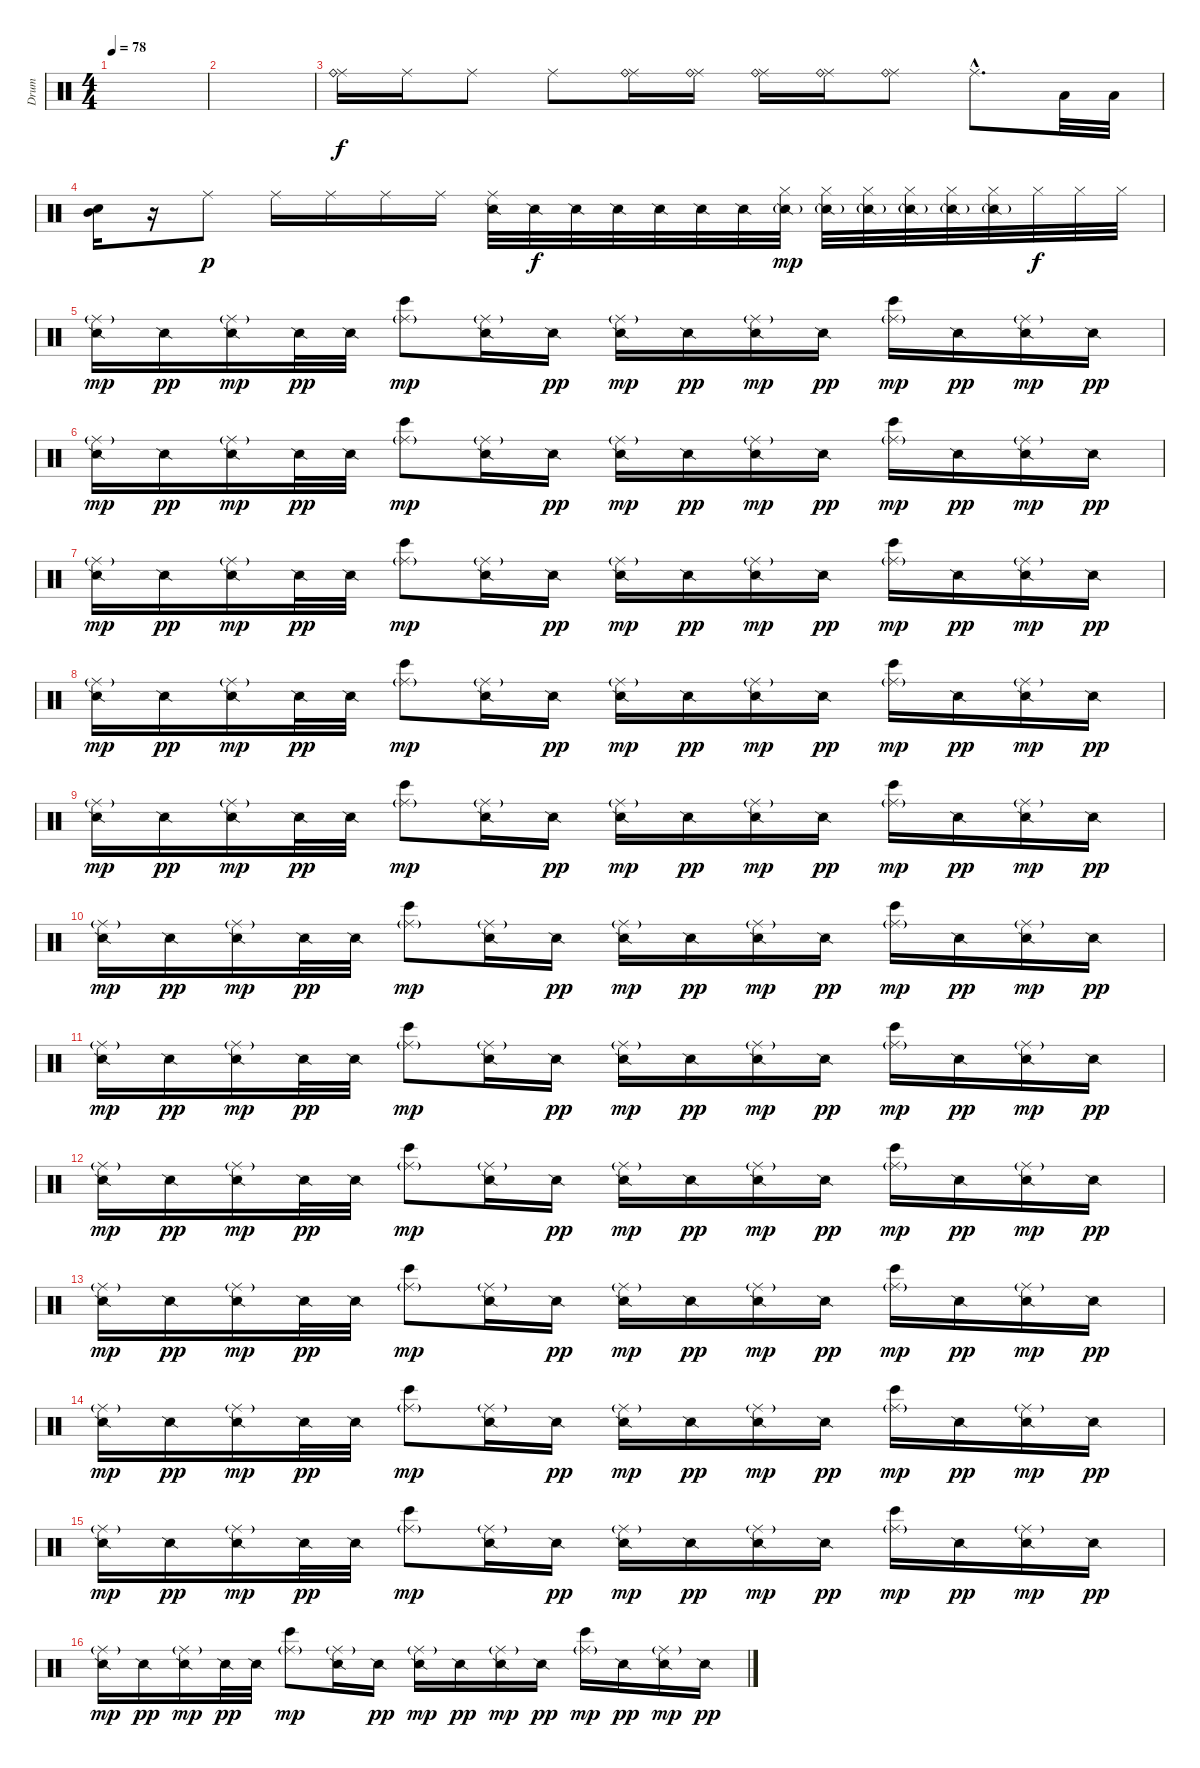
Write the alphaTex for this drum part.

\track ("Drum" "Drum") {instrument percussion}
\staff {score}
\articulation defaults
\ts (4 4)
\tempo 78
\clef neutral
\ks c
|
|
("Ride (middle)" "Ride (bell)").16 "Ride (middle)".16 "Ride (middle)".8 "Ride (middle)".8 ("Ride (middle)" "Ride (bell)").16 ("Ride (middle)" "Ride (bell)").16 ("Ride (middle)" "Ride (bell)").16 ("Ride (middle)" "Ride (bell)").16 ("Ride (middle)" "Ride (bell)").8 "Ride (middle)"{hac}.8{d} "Low Tom (hit)".32{dy f} "Low Tom (hit)".32 |
("Mid Tom (hit)" "Electric Snare (hit)").16 r.16 "Ride (middle)".8{dy p} "Ride (middle)".16 "Ride (middle)".16 "Ride (middle)".16 "Ride (middle)".16 ("Ride (middle)" "Snare (side stick) 2").32 "Snare (side stick) 2".32{dy f} "Snare (side stick) 2".32 "Snare (side stick) 2".32 "Snare (side stick) 2".32 "Snare (side stick) 2".32 "Snare (side stick) 2".32 ("Hi-Hat (closed)" "Snare (side stick) 2"{g}).32{dy mp} ("Hi-Hat (closed)" "Snare (side stick) 2"{g}).32 ("Hi-Hat (closed)" "Snare (side stick) 2"{g}).32 ("Hi-Hat (closed)" "Snare (side stick) 2"{g}).32 ("Hi-Hat (closed)" "Snare (side stick) 2"{g}).32 ("Hi-Hat (closed)" "Snare (side stick) 2"{g}).32 "Hi-Hat (closed)".32{dy f} "Hi-Hat (closed)".32 "Hi-Hat (closed)".32 |
("Snare (side stick) 2" "Ride (middle)"{g}).16{dy mp} "Snare (side stick) 2".16{dy pp} ("Snare (side stick) 2" "Ride (middle)"{g}).16{dy mp} "Snare (side stick) 2".32{dy pp} "Snare (side stick) 2".32 ("Bongo High (hit)" "Ride (middle)"{g}).8{dy mp} ("Snare (side stick) 2" "Ride (middle)"{g}).16 "Snare (side stick) 2".16{dy pp} ("Snare (side stick) 2" "Ride (middle)"{g}).16{dy mp} "Snare (side stick) 2".16{dy pp} ("Snare (side stick) 2" "Ride (middle)"{g}).16{dy mp} "Snare (side stick) 2".16{dy pp} ("Bongo High (hit)" "Ride (middle)"{g}).16{dy mp} "Snare (side stick) 2".16{dy pp} ("Snare (side stick) 2" "Ride (middle)"{g}).16{dy mp} "Snare (side stick) 2".16{dy pp} |
("Snare (side stick) 2" "Ride (middle)"{g}).16{dy mp} "Snare (side stick) 2".16{dy pp} ("Snare (side stick) 2" "Ride (middle)"{g}).16{dy mp} "Snare (side stick) 2".32{dy pp} "Snare (side stick) 2".32 ("Bongo High (hit)" "Ride (middle)"{g}).8{dy mp} ("Snare (side stick) 2" "Ride (middle)"{g}).16 "Snare (side stick) 2".16{dy pp} ("Snare (side stick) 2" "Ride (middle)"{g}).16{dy mp} "Snare (side stick) 2".16{dy pp} ("Snare (side stick) 2" "Ride (middle)"{g}).16{dy mp} "Snare (side stick) 2".16{dy pp} ("Bongo High (hit)" "Ride (middle)"{g}).16{dy mp} "Snare (side stick) 2".16{dy pp} ("Snare (side stick) 2" "Ride (middle)"{g}).16{dy mp} "Snare (side stick) 2".16{dy pp} |
("Snare (side stick) 2" "Ride (middle)"{g}).16{dy mp} "Snare (side stick) 2".16{dy pp} ("Snare (side stick) 2" "Ride (middle)"{g}).16{dy mp} "Snare (side stick) 2".32{dy pp} "Snare (side stick) 2".32 ("Bongo High (hit)" "Ride (middle)"{g}).8{dy mp} ("Snare (side stick) 2" "Ride (middle)"{g}).16 "Snare (side stick) 2".16{dy pp} ("Snare (side stick) 2" "Ride (middle)"{g}).16{dy mp} "Snare (side stick) 2".16{dy pp} ("Snare (side stick) 2" "Ride (middle)"{g}).16{dy mp} "Snare (side stick) 2".16{dy pp} ("Bongo High (hit)" "Ride (middle)"{g}).16{dy mp} "Snare (side stick) 2".16{dy pp} ("Snare (side stick) 2" "Ride (middle)"{g}).16{dy mp} "Snare (side stick) 2".16{dy pp} |
("Snare (side stick) 2" "Ride (middle)"{g}).16{dy mp} "Snare (side stick) 2".16{dy pp} ("Snare (side stick) 2" "Ride (middle)"{g}).16{dy mp} "Snare (side stick) 2".32{dy pp} "Snare (side stick) 2".32 ("Bongo High (hit)" "Ride (middle)"{g}).8{dy mp} ("Snare (side stick) 2" "Ride (middle)"{g}).16 "Snare (side stick) 2".16{dy pp} ("Snare (side stick) 2" "Ride (middle)"{g}).16{dy mp} "Snare (side stick) 2".16{dy pp} ("Snare (side stick) 2" "Ride (middle)"{g}).16{dy mp} "Snare (side stick) 2".16{dy pp} ("Bongo High (hit)" "Ride (middle)"{g}).16{dy mp} "Snare (side stick) 2".16{dy pp} ("Snare (side stick) 2" "Ride (middle)"{g}).16{dy mp} "Snare (side stick) 2".16{dy pp} |
("Snare (side stick) 2" "Ride (middle)"{g}).16{dy mp} "Snare (side stick) 2".16{dy pp} ("Snare (side stick) 2" "Ride (middle)"{g}).16{dy mp} "Snare (side stick) 2".32{dy pp} "Snare (side stick) 2".32 ("Bongo High (hit)" "Ride (middle)"{g}).8{dy mp} ("Snare (side stick) 2" "Ride (middle)"{g}).16 "Snare (side stick) 2".16{dy pp} ("Snare (side stick) 2" "Ride (middle)"{g}).16{dy mp} "Snare (side stick) 2".16{dy pp} ("Snare (side stick) 2" "Ride (middle)"{g}).16{dy mp} "Snare (side stick) 2".16{dy pp} ("Bongo High (hit)" "Ride (middle)"{g}).16{dy mp} "Snare (side stick) 2".16{dy pp} ("Snare (side stick) 2" "Ride (middle)"{g}).16{dy mp} "Snare (side stick) 2".16{dy pp} |
("Snare (side stick) 2" "Ride (middle)"{g}).16{dy mp} "Snare (side stick) 2".16{dy pp} ("Snare (side stick) 2" "Ride (middle)"{g}).16{dy mp} "Snare (side stick) 2".32{dy pp} "Snare (side stick) 2".32 ("Bongo High (hit)" "Ride (middle)"{g}).8{dy mp} ("Snare (side stick) 2" "Ride (middle)"{g}).16 "Snare (side stick) 2".16{dy pp} ("Snare (side stick) 2" "Ride (middle)"{g}).16{dy mp} "Snare (side stick) 2".16{dy pp} ("Snare (side stick) 2" "Ride (middle)"{g}).16{dy mp} "Snare (side stick) 2".16{dy pp} ("Bongo High (hit)" "Ride (middle)"{g}).16{dy mp} "Snare (side stick) 2".16{dy pp} ("Snare (side stick) 2" "Ride (middle)"{g}).16{dy mp} "Snare (side stick) 2".16{dy pp} |
("Snare (side stick) 2" "Ride (middle)"{g}).16{dy mp} "Snare (side stick) 2".16{dy pp} ("Snare (side stick) 2" "Ride (middle)"{g}).16{dy mp} "Snare (side stick) 2".32{dy pp} "Snare (side stick) 2".32 ("Bongo High (hit)" "Ride (middle)"{g}).8{dy mp} ("Snare (side stick) 2" "Ride (middle)"{g}).16 "Snare (side stick) 2".16{dy pp} ("Snare (side stick) 2" "Ride (middle)"{g}).16{dy mp} "Snare (side stick) 2".16{dy pp} ("Snare (side stick) 2" "Ride (middle)"{g}).16{dy mp} "Snare (side stick) 2".16{dy pp} ("Bongo High (hit)" "Ride (middle)"{g}).16{dy mp} "Snare (side stick) 2".16{dy pp} ("Snare (side stick) 2" "Ride (middle)"{g}).16{dy mp} "Snare (side stick) 2".16{dy pp} |
("Snare (side stick) 2" "Ride (middle)"{g}).16{dy mp} "Snare (side stick) 2".16{dy pp} ("Snare (side stick) 2" "Ride (middle)"{g}).16{dy mp} "Snare (side stick) 2".32{dy pp} "Snare (side stick) 2".32 ("Bongo High (hit)" "Ride (middle)"{g}).8{dy mp} ("Snare (side stick) 2" "Ride (middle)"{g}).16 "Snare (side stick) 2".16{dy pp} ("Snare (side stick) 2" "Ride (middle)"{g}).16{dy mp} "Snare (side stick) 2".16{dy pp} ("Snare (side stick) 2" "Ride (middle)"{g}).16{dy mp} "Snare (side stick) 2".16{dy pp} ("Bongo High (hit)" "Ride (middle)"{g}).16{dy mp} "Snare (side stick) 2".16{dy pp} ("Snare (side stick) 2" "Ride (middle)"{g}).16{dy mp} "Snare (side stick) 2".16{dy pp} |
("Snare (side stick) 2" "Ride (middle)"{g}).16{dy mp} "Snare (side stick) 2".16{dy pp} ("Snare (side stick) 2" "Ride (middle)"{g}).16{dy mp} "Snare (side stick) 2".32{dy pp} "Snare (side stick) 2".32 ("Bongo High (hit)" "Ride (middle)"{g}).8{dy mp} ("Snare (side stick) 2" "Ride (middle)"{g}).16 "Snare (side stick) 2".16{dy pp} ("Snare (side stick) 2" "Ride (middle)"{g}).16{dy mp} "Snare (side stick) 2".16{dy pp} ("Snare (side stick) 2" "Ride (middle)"{g}).16{dy mp} "Snare (side stick) 2".16{dy pp} ("Bongo High (hit)" "Ride (middle)"{g}).16{dy mp} "Snare (side stick) 2".16{dy pp} ("Snare (side stick) 2" "Ride (middle)"{g}).16{dy mp} "Snare (side stick) 2".16{dy pp} |
("Snare (side stick) 2" "Ride (middle)"{g}).16{dy mp} "Snare (side stick) 2".16{dy pp} ("Snare (side stick) 2" "Ride (middle)"{g}).16{dy mp} "Snare (side stick) 2".32{dy pp} "Snare (side stick) 2".32 ("Bongo High (hit)" "Ride (middle)"{g}).8{dy mp} ("Snare (side stick) 2" "Ride (middle)"{g}).16 "Snare (side stick) 2".16{dy pp} ("Snare (side stick) 2" "Ride (middle)"{g}).16{dy mp} "Snare (side stick) 2".16{dy pp} ("Snare (side stick) 2" "Ride (middle)"{g}).16{dy mp} "Snare (side stick) 2".16{dy pp} ("Bongo High (hit)" "Ride (middle)"{g}).16{dy mp} "Snare (side stick) 2".16{dy pp} ("Snare (side stick) 2" "Ride (middle)"{g}).16{dy mp} "Snare (side stick) 2".16{dy pp} |
("Snare (side stick) 2" "Ride (middle)"{g}).16{dy mp} "Snare (side stick) 2".16{dy pp} ("Snare (side stick) 2" "Ride (middle)"{g}).16{dy mp} "Snare (side stick) 2".32{dy pp} "Snare (side stick) 2".32 ("Bongo High (hit)" "Ride (middle)"{g}).8{dy mp} ("Snare (side stick) 2" "Ride (middle)"{g}).16 "Snare (side stick) 2".16{dy pp} ("Snare (side stick) 2" "Ride (middle)"{g}).16{dy mp} "Snare (side stick) 2".16{dy pp} ("Snare (side stick) 2" "Ride (middle)"{g}).16{dy mp} "Snare (side stick) 2".16{dy pp} ("Bongo High (hit)" "Ride (middle)"{g}).16{dy mp} "Snare (side stick) 2".16{dy pp} ("Snare (side stick) 2" "Ride (middle)"{g}).16{dy mp} "Snare (side stick) 2".16{dy pp} |
("Snare (side stick) 2" "Ride (middle)"{g}).16{dy mp} "Snare (side stick) 2".16{dy pp} ("Snare (side stick) 2" "Ride (middle)"{g}).16{dy mp} "Snare (side stick) 2".32{dy pp} "Snare (side stick) 2".32 ("Bongo High (hit)" "Ride (middle)"{g}).8{dy mp} ("Snare (side stick) 2" "Ride (middle)"{g}).16 "Snare (side stick) 2".16{dy pp} ("Snare (side stick) 2" "Ride (middle)"{g}).16{dy mp} "Snare (side stick) 2".16{dy pp} ("Snare (side stick) 2" "Ride (middle)"{g}).16{dy mp} "Snare (side stick) 2".16{dy pp} ("Bongo High (hit)" "Ride (middle)"{g}).16{dy mp} "Snare (side stick) 2".16{dy pp} ("Snare (side stick) 2" "Ride (middle)"{g}).16{dy mp} "Snare (side stick) 2".16{dy pp}
